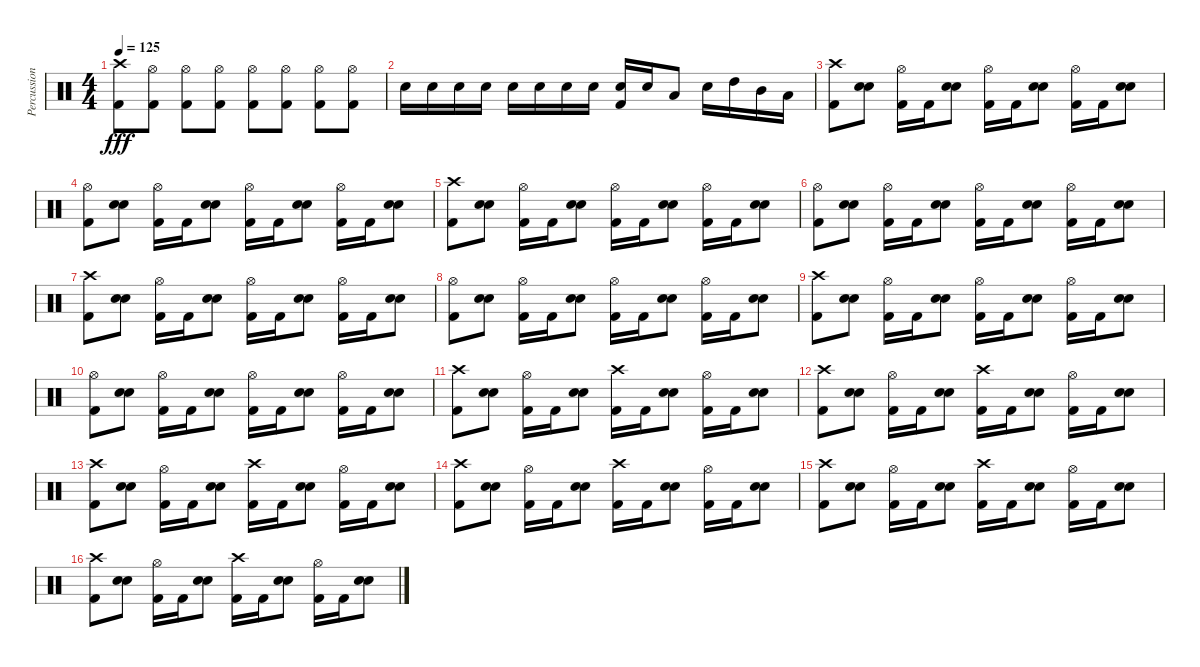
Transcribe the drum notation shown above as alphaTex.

\track ("Percussion" "Percussion") {instrument percussion}
\staff {score}
\articulation defaults
\ts (4 4)
\tempo 125
\clef neutral
\ks c
("Crash high (hit)" "Kick (hit) 2").8{dy fff} ("Hi-Hat (open)" "Kick (hit) 2").8 ("Hi-Hat (open)" "Kick (hit) 2").8 ("Hi-Hat (open)" "Kick (hit) 2").8 ("Hi-Hat (open)" "Kick (hit) 2").8 ("Hi-Hat (open)" "Kick (hit) 2").8 ("Hi-Hat (open)" "Kick (hit) 2").8 ("Hi-Hat (open)" "Kick (hit) 2").8 |
"Snare (hit) 2".16 "Snare (hit) 2".16 "Snare (hit) 2".16 "Snare (hit) 2".16 "Snare (hit) 2".16 "Snare (hit) 2".16 "Snare (hit) 2".16 "Snare (hit) 2".16 ("Snare (hit) 2" "Kick (hit) 2").16 "Snare (hit) 2".16 "Low Tom (hit)".8 "Snare (hit) 2".16 "High Tom (hit)".16 "Mid Tom (hit)".16 "Low Tom (hit)".16 |
("Crash high (hit)" "Kick (hit) 2").8 ("Snare (hit) 2" "Snare (hit) 2").8 ("Hi-Hat (open)" "Kick (hit) 2").16 "Kick (hit) 2".16 ("Snare (hit) 2" "Snare (hit) 2").8 ("Hi-Hat (open)" "Kick (hit) 2").16 "Kick (hit) 2".16 ("Snare (hit) 2" "Snare (hit) 2").8 ("Hi-Hat (open)" "Kick (hit) 2").16 "Kick (hit) 2".16 ("Snare (hit) 2" "Snare (hit) 2").8 |
("Hi-Hat (open)" "Kick (hit) 2").8 ("Snare (hit) 2" "Snare (hit) 2").8 ("Hi-Hat (open)" "Kick (hit) 2").16 "Kick (hit) 2".16 ("Snare (hit) 2" "Snare (hit) 2").8 ("Hi-Hat (open)" "Kick (hit) 2").16 "Kick (hit) 2".16 ("Snare (hit) 2" "Snare (hit) 2").8 ("Hi-Hat (open)" "Kick (hit) 2").16 "Kick (hit) 2".16 ("Snare (hit) 2" "Snare (hit) 2").8 |
("Crash high (hit)" "Kick (hit) 2").8 ("Snare (hit) 2" "Snare (hit) 2").8 ("Hi-Hat (open)" "Kick (hit) 2").16 "Kick (hit) 2".16 ("Snare (hit) 2" "Snare (hit) 2").8 ("Hi-Hat (open)" "Kick (hit) 2").16 "Kick (hit) 2".16 ("Snare (hit) 2" "Snare (hit) 2").8 ("Hi-Hat (open)" "Kick (hit) 2").16 "Kick (hit) 2".16 ("Snare (hit) 2" "Snare (hit) 2").8 |
("Hi-Hat (open)" "Kick (hit) 2").8 ("Snare (hit) 2" "Snare (hit) 2").8 ("Hi-Hat (open)" "Kick (hit) 2").16 "Kick (hit) 2".16 ("Snare (hit) 2" "Snare (hit) 2").8 ("Hi-Hat (open)" "Kick (hit) 2").16 "Kick (hit) 2".16 ("Snare (hit) 2" "Snare (hit) 2").8 ("Hi-Hat (open)" "Kick (hit) 2").16 "Kick (hit) 2".16 ("Snare (hit) 2" "Snare (hit) 2").8 |
("Crash high (hit)" "Kick (hit) 2").8 ("Snare (hit) 2" "Snare (hit) 2").8 ("Hi-Hat (open)" "Kick (hit) 2").16 "Kick (hit) 2".16 ("Snare (hit) 2" "Snare (hit) 2").8 ("Hi-Hat (open)" "Kick (hit) 2").16 "Kick (hit) 2".16 ("Snare (hit) 2" "Snare (hit) 2").8 ("Hi-Hat (open)" "Kick (hit) 2").16 "Kick (hit) 2".16 ("Snare (hit) 2" "Snare (hit) 2").8 |
("Hi-Hat (open)" "Kick (hit) 2").8 ("Snare (hit) 2" "Snare (hit) 2").8 ("Hi-Hat (open)" "Kick (hit) 2").16 "Kick (hit) 2".16 ("Snare (hit) 2" "Snare (hit) 2").8 ("Hi-Hat (open)" "Kick (hit) 2").16 "Kick (hit) 2".16 ("Snare (hit) 2" "Snare (hit) 2").8 ("Hi-Hat (open)" "Kick (hit) 2").16 "Kick (hit) 2".16 ("Snare (hit) 2" "Snare (hit) 2").8 |
("Crash high (hit)" "Kick (hit) 2").8 ("Snare (hit) 2" "Snare (hit) 2").8 ("Hi-Hat (open)" "Kick (hit) 2").16 "Kick (hit) 2".16 ("Snare (hit) 2" "Snare (hit) 2").8 ("Hi-Hat (open)" "Kick (hit) 2").16 "Kick (hit) 2".16 ("Snare (hit) 2" "Snare (hit) 2").8 ("Hi-Hat (open)" "Kick (hit) 2").16 "Kick (hit) 2".16 ("Snare (hit) 2" "Snare (hit) 2").8 |
("Hi-Hat (open)" "Kick (hit) 2").8 ("Snare (hit) 2" "Snare (hit) 2").8 ("Hi-Hat (open)" "Kick (hit) 2").16 "Kick (hit) 2".16 ("Snare (hit) 2" "Snare (hit) 2").8 ("Hi-Hat (open)" "Kick (hit) 2").16 "Kick (hit) 2".16 ("Snare (hit) 2" "Snare (hit) 2").8 ("Hi-Hat (open)" "Kick (hit) 2").16 "Kick (hit) 2".16 ("Snare (hit) 2" "Snare (hit) 2").8 |
("Crash high (hit)" "Kick (hit) 2").8 ("Snare (hit) 2" "Snare (hit) 2").8 ("Hi-Hat (open)" "Kick (hit) 2").16 "Kick (hit) 2".16 ("Snare (hit) 2" "Snare (hit) 2").8 ("Crash high (hit)" "Kick (hit) 2").16 "Kick (hit) 2".16 ("Snare (hit) 2" "Snare (hit) 2").8 ("Hi-Hat (open)" "Kick (hit) 2").16 "Kick (hit) 2".16 ("Snare (hit) 2" "Snare (hit) 2").8 |
("Crash high (hit)" "Kick (hit) 2").8 ("Snare (hit) 2" "Snare (hit) 2").8 ("Hi-Hat (open)" "Kick (hit) 2").16 "Kick (hit) 2".16 ("Snare (hit) 2" "Snare (hit) 2").8 ("Crash high (hit)" "Kick (hit) 2").16 "Kick (hit) 2".16 ("Snare (hit) 2" "Snare (hit) 2").8 ("Hi-Hat (open)" "Kick (hit) 2").16 "Kick (hit) 2".16 ("Snare (hit) 2" "Snare (hit) 2").8 |
("Crash high (hit)" "Kick (hit) 2").8 ("Snare (hit) 2" "Snare (hit) 2").8 ("Hi-Hat (open)" "Kick (hit) 2").16 "Kick (hit) 2".16 ("Snare (hit) 2" "Snare (hit) 2").8 ("Crash high (hit)" "Kick (hit) 2").16 "Kick (hit) 2".16 ("Snare (hit) 2" "Snare (hit) 2").8 ("Hi-Hat (open)" "Kick (hit) 2").16 "Kick (hit) 2".16 ("Snare (hit) 2" "Snare (hit) 2").8 |
("Crash high (hit)" "Kick (hit) 2").8 ("Snare (hit) 2" "Snare (hit) 2").8 ("Hi-Hat (open)" "Kick (hit) 2").16 "Kick (hit) 2".16 ("Snare (hit) 2" "Snare (hit) 2").8 ("Crash high (hit)" "Kick (hit) 2").16 "Kick (hit) 2".16 ("Snare (hit) 2" "Snare (hit) 2").8 ("Hi-Hat (open)" "Kick (hit) 2").16 "Kick (hit) 2".16 ("Snare (hit) 2" "Snare (hit) 2").8 |
("Crash high (hit)" "Kick (hit) 2").8 ("Snare (hit) 2" "Snare (hit) 2").8 ("Hi-Hat (open)" "Kick (hit) 2").16 "Kick (hit) 2".16 ("Snare (hit) 2" "Snare (hit) 2").8 ("Crash high (hit)" "Kick (hit) 2").16 "Kick (hit) 2".16 ("Snare (hit) 2" "Snare (hit) 2").8 ("Hi-Hat (open)" "Kick (hit) 2").16 "Kick (hit) 2".16 ("Snare (hit) 2" "Snare (hit) 2").8 |
("Crash high (hit)" "Kick (hit) 2").8 ("Snare (hit) 2" "Snare (hit) 2").8 ("Hi-Hat (open)" "Kick (hit) 2").16 "Kick (hit) 2".16 ("Snare (hit) 2" "Snare (hit) 2").8 ("Crash high (hit)" "Kick (hit) 2").16 "Kick (hit) 2".16 ("Snare (hit) 2" "Snare (hit) 2").8 ("Hi-Hat (open)" "Kick (hit) 2").16 "Kick (hit) 2".16 ("Snare (hit) 2" "Snare (hit) 2").8
